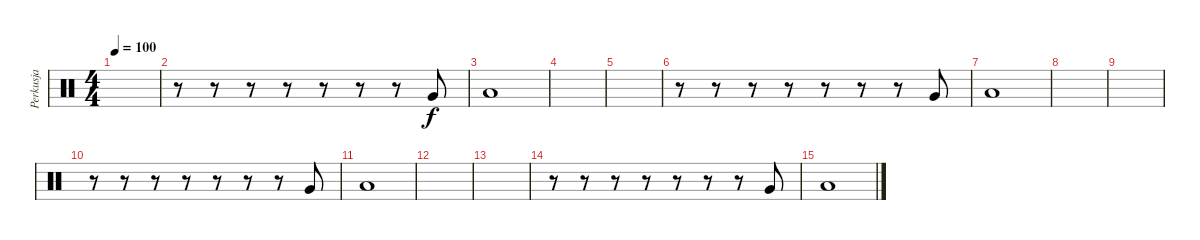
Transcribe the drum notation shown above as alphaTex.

\track ("Perkusja" "Perkusja") {instrument percussion}
\staff {score}
\articulation defaults
\ts (4 4)
\tempo 100
\clef neutral
\ks c
|
r.8 r.8 r.8 r.8 r.8 r.8 r.8 "Very Low Tom (hit)".8 |
"Low Floor Tom (hit)".1 |
|
|
r.8 r.8 r.8 r.8 r.8 r.8 r.8 "Very Low Tom (hit)".8 |
"Low Floor Tom (hit)".1 |
|
|
r.8 r.8 r.8 r.8 r.8 r.8 r.8 "Very Low Tom (hit)".8 |
"Low Floor Tom (hit)".1 |
|
|
r.8 r.8 r.8 r.8 r.8 r.8 r.8 "Very Low Tom (hit)".8 |
"Low Floor Tom (hit)".1
